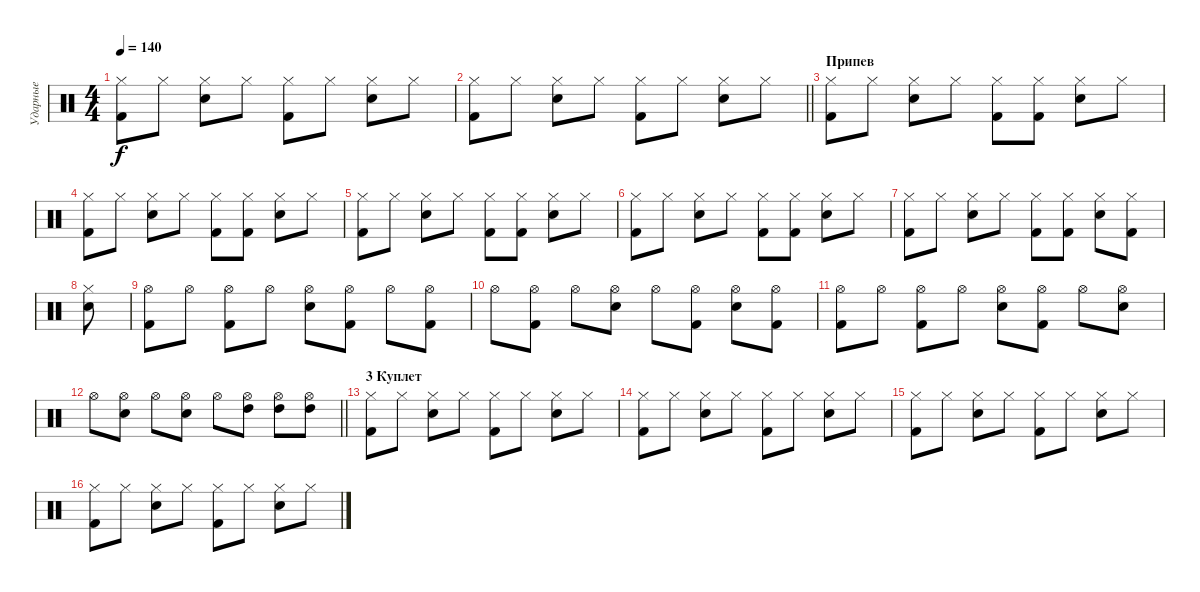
\track ("Ударные" "Ударные") {instrument percussion}
\staff {score}
\articulation defaults
\ts (4 4)
\tempo 140
\clef neutral
\ks c
("Hi-Hat (closed)" "Kick (hit) 2").8{dy f} "Hi-Hat (closed)".8 ("Hi-Hat (closed)" "Electric Snare (hit)").8 "Hi-Hat (closed)".8 ("Hi-Hat (closed)" "Kick (hit) 2").8 "Hi-Hat (closed)".8 ("Hi-Hat (closed)" "Electric Snare (hit)").8 "Hi-Hat (closed)".8 |
\barLineRight lightlight
("Hi-Hat (closed)" "Kick (hit) 2").8 "Hi-Hat (closed)".8 ("Hi-Hat (closed)" "Electric Snare (hit)").8 "Hi-Hat (closed)".8 ("Hi-Hat (closed)" "Kick (hit) 2").8 "Hi-Hat (closed)".8 ("Hi-Hat (closed)" "Electric Snare (hit)").8 "Hi-Hat (closed)".8 |
\section ("" "Припев")
("Hi-Hat (closed)" "Kick (hit) 2").8 "Hi-Hat (closed)".8 ("Hi-Hat (closed)" "Electric Snare (hit)").8 "Hi-Hat (closed)".8 ("Hi-Hat (closed)" "Kick (hit) 2").8 ("Hi-Hat (closed)" "Kick (hit) 2").8 ("Hi-Hat (closed)" "Electric Snare (hit)").8 "Hi-Hat (closed)".8 |
("Hi-Hat (closed)" "Kick (hit) 2").8 "Hi-Hat (closed)".8 ("Hi-Hat (closed)" "Electric Snare (hit)").8 "Hi-Hat (closed)".8 ("Hi-Hat (closed)" "Kick (hit) 2").8 ("Hi-Hat (closed)" "Kick (hit) 2").8 ("Hi-Hat (closed)" "Electric Snare (hit)").8 "Hi-Hat (closed)".8 |
("Hi-Hat (closed)" "Kick (hit) 2").8 "Hi-Hat (closed)".8 ("Hi-Hat (closed)" "Electric Snare (hit)").8 "Hi-Hat (closed)".8 ("Hi-Hat (closed)" "Kick (hit) 2").8 ("Hi-Hat (closed)" "Kick (hit) 2").8 ("Hi-Hat (closed)" "Electric Snare (hit)").8 "Hi-Hat (closed)".8 |
("Hi-Hat (closed)" "Kick (hit) 2").8 "Hi-Hat (closed)".8 ("Hi-Hat (closed)" "Electric Snare (hit)").8 "Hi-Hat (closed)".8 ("Hi-Hat (closed)" "Kick (hit) 2").8 ("Hi-Hat (closed)" "Kick (hit) 2").8 ("Hi-Hat (closed)" "Electric Snare (hit)").8 "Hi-Hat (closed)".8 |
("Hi-Hat (closed)" "Kick (hit) 2").8 "Hi-Hat (closed)".8 ("Hi-Hat (closed)" "Electric Snare (hit)").8 "Hi-Hat (closed)".8 ("Hi-Hat (closed)" "Kick (hit) 2").8 ("Hi-Hat (closed)" "Kick (hit) 2").8 ("Hi-Hat (closed)" "Electric Snare (hit)").8 ("Hi-Hat (closed)" "Kick (hit) 2").8 |
("Hi-Hat (closed)" "Electric Snare (hit)").8 |
("Hi-Hat (open)" "Kick (hit) 2").8 "Hi-Hat (open)".8 ("Hi-Hat (open)" "Kick (hit) 2").8 "Hi-Hat (open)".8 ("Hi-Hat (open)" "Electric Snare (hit)").8 ("Hi-Hat (open)" "Kick (hit) 2").8 "Hi-Hat (open)".8 ("Hi-Hat (open)" "Kick (hit) 2").8 |
"Hi-Hat (open)".8 ("Hi-Hat (open)" "Kick (hit) 2").8 "Hi-Hat (open)".8 ("Hi-Hat (open)" "Electric Snare (hit)").8 "Hi-Hat (open)".8 ("Hi-Hat (open)" "Kick (hit) 2").8 ("Hi-Hat (open)" "Electric Snare (hit)").8 ("Hi-Hat (open)" "Kick (hit) 2").8 |
("Hi-Hat (open)" "Kick (hit) 2").8 "Hi-Hat (open)".8 ("Hi-Hat (open)" "Kick (hit) 2").8 "Hi-Hat (open)".8 ("Hi-Hat (open)" "Electric Snare (hit)").8 ("Hi-Hat (open)" "Kick (hit) 2").8 "Hi-Hat (open)".8 ("Hi-Hat (open)" "Electric Snare (hit)").8 |
\barLineRight lightlight "Hi-Hat (open)".8
("Hi-Hat (open)" "Electric Snare (hit)").8 "Hi-Hat (open)".8 ("Hi-Hat (open)" "Electric Snare (hit)").8 "Hi-Hat (open)".8 ("Hi-Hat (open)" "High Tom (hit)").8 ("Hi-Hat (open)" "High Tom (hit)").8 ("Hi-Hat (open)" "High Tom (hit)").8 |
\section ("" "3 Куплет")
("Hi-Hat (closed)" "Kick (hit) 2").8 "Hi-Hat (closed)".8 ("Hi-Hat (closed)" "Electric Snare (hit)").8 "Hi-Hat (closed)".8 ("Hi-Hat (closed)" "Kick (hit) 2").8 "Hi-Hat (closed)".8 ("Hi-Hat (closed)" "Electric Snare (hit)").8 "Hi-Hat (closed)".8 |
("Hi-Hat (closed)" "Kick (hit) 2").8 "Hi-Hat (closed)".8 ("Hi-Hat (closed)" "Electric Snare (hit)").8 "Hi-Hat (closed)".8 ("Hi-Hat (closed)" "Kick (hit) 2").8 "Hi-Hat (closed)".8 ("Hi-Hat (closed)" "Electric Snare (hit)").8 "Hi-Hat (closed)".8 |
("Hi-Hat (closed)" "Kick (hit) 2").8 "Hi-Hat (closed)".8 ("Hi-Hat (closed)" "Electric Snare (hit)").8 "Hi-Hat (closed)".8 ("Hi-Hat (closed)" "Kick (hit) 2").8 "Hi-Hat (closed)".8 ("Hi-Hat (closed)" "Electric Snare (hit)").8 "Hi-Hat (closed)".8 |
("Hi-Hat (closed)" "Kick (hit) 2").8 "Hi-Hat (closed)".8 ("Hi-Hat (closed)" "Electric Snare (hit)").8 "Hi-Hat (closed)".8 ("Hi-Hat (closed)" "Kick (hit) 2").8 "Hi-Hat (closed)".8 ("Hi-Hat (closed)" "Electric Snare (hit)").8 "Hi-Hat (closed)".8
